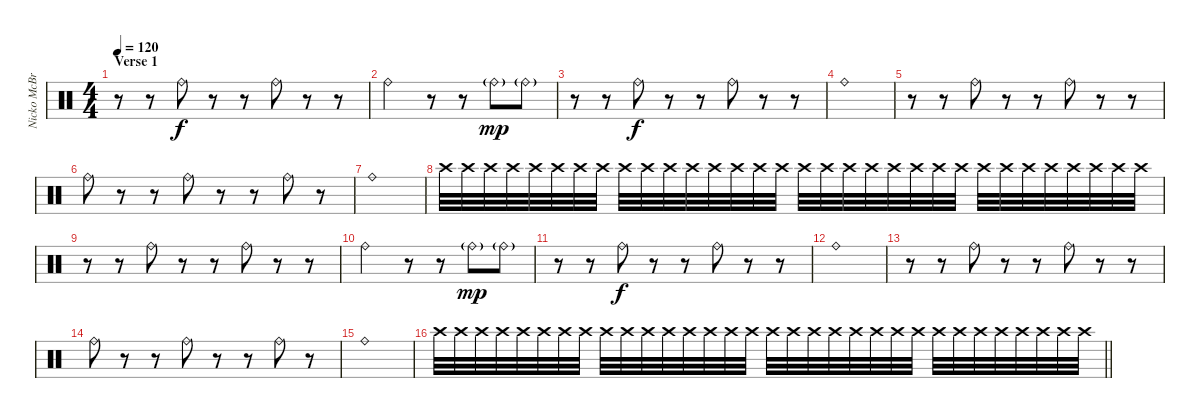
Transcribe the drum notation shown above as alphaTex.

\track ("Nicko McBrain" "Nicko McBr") {instrument percussion}
\staff {score}
\articulation defaults
\ts (4 4)
\section ("" "Verse 1")
\tempo 120
\clef neutral
\ks c
r.8{dy f} r.8 "Ride (bell)".8{volume 10 balance 16} r.8 r.8 "Ride (bell)".8{balance 8} r.8 r.8 |
"Ride (bell)".2{balance 0} r.8 r.8 "Ride (bell)"{g}.8{dy mp} "Ride (bell)"{g}.8 |
r.8 r.8 "Ride (bell)".8{dy f balance 16} r.8 r.8 "Ride (bell)".8{balance 8} r.8 r.8 |
"Ride (bell)".1{balance 0} |
r.8 r.8 "Ride (bell)".8{balance 12} r.8 r.8 "Ride (bell)".8{balance 16} r.8 r.8 |
"Ride (bell)".8{balance 12} r.8 r.8 "Ride (bell)".8{balance 8} r.8 r.8 "Ride (bell)".8{balance 4} r.8 |
"Ride (bell)".1{volume 0 balance 0} |
"Crash high (hit)".32{volume 4 balance 8} "Crash high (hit)".32 "Crash high (hit)".32 "Crash high (hit)".32 "Crash high (hit)".32 "Crash high (hit)".32 "Crash high (hit)".32 "Crash high (hit)".32 "Crash high (hit)".32 "Crash high (hit)".32 "Crash high (hit)".32 "Crash high (hit)".32 "Crash high (hit)".32 "Crash high (hit)".32 "Crash high (hit)".32 "Crash high (hit)".32 "Crash high (hit)".32 "Crash high (hit)".32 "Crash high (hit)".32 "Crash high (hit)".32 "Crash high (hit)".32 "Crash high (hit)".32 "Crash high (hit)".32 "Crash high (hit)".32 "Crash high (hit)".32 "Crash high (hit)".32 "Crash high (hit)".32 "Crash high (hit)".32 "Crash high (hit)".32 "Crash high (hit)".32 "Crash high (hit)".32 "Crash high (hit)".32 |
r.8 r.8 "Ride (bell)".8{volume 10 balance 16} r.8 r.8 "Ride (bell)".8{balance 8} r.8 r.8 |
"Ride (bell)".2{balance 0} r.8 r.8 "Ride (bell)"{g}.8{dy mp} "Ride (bell)"{g}.8 |
r.8 r.8 "Ride (bell)".8{dy f balance 16} r.8 r.8 "Ride (bell)".8{balance 8} r.8 r.8 |
"Ride (bell)".1{balance 0} |
r.8 r.8 "Ride (bell)".8{balance 12} r.8 r.8 "Ride (bell)".8{balance 16} r.8 r.8 |
"Ride (bell)".8{balance 12} r.8 r.8 "Ride (bell)".8{balance 8} r.8 r.8 "Ride (bell)".8{balance 4} r.8 |
"Ride (bell)".1{volume 0 balance 0} |
\barLineRight lightlight "Crash high (hit)".32{volume 4 balance 8} "Crash high (hit)".32 "Crash high (hit)".32 "Crash high (hit)".32 "Crash high (hit)".32 "Crash high (hit)".32 "Crash high (hit)".32 "Crash high (hit)".32 "Crash high (hit)".32 "Crash high (hit)".32 "Crash high (hit)".32 "Crash high (hit)".32 "Crash high (hit)".32 "Crash high (hit)".32 "Crash high (hit)".32 "Crash high (hit)".32 "Crash high (hit)".32 "Crash high (hit)".32 "Crash high (hit)".32 "Crash high (hit)".32 "Crash high (hit)".32 "Crash high (hit)".32 "Crash high (hit)".32 "Crash high (hit)".32 "Crash high (hit)".32 "Crash high (hit)".32 "Crash high (hit)".32 "Crash high (hit)".32 "Crash high (hit)".32 "Crash high (hit)".32 "Crash high (hit)".32 "Crash high (hit)".32
